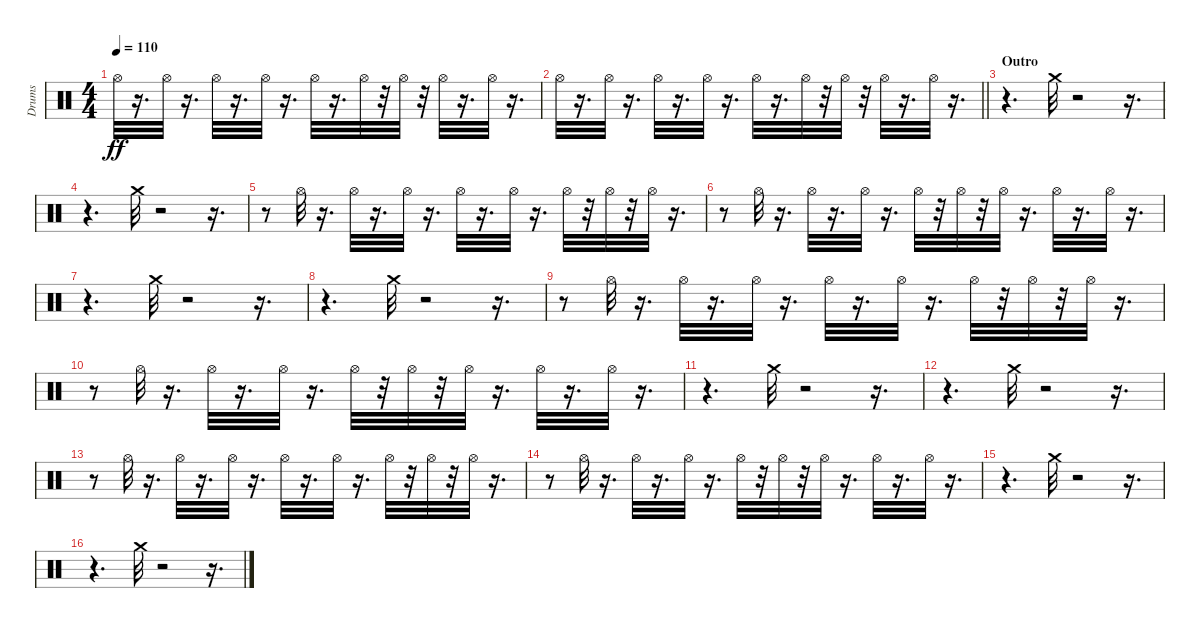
\track ("Drums" "Drums") {instrument percussion}
\staff {score}
\articulation defaults
\ts (4 4)
\tempo 110
\clef neutral
\ks c "Hi-Hat (open)".32{dy ff}
r.16{d} "Hi-Hat (open)".32 r.16{d} "Hi-Hat (open)".32 r.16{d} "Hi-Hat (open)".32 r.16{d} "Hi-Hat (open)".32 r.16{d} "Hi-Hat (open)".32 r.32 "Hi-Hat (open)".32 r.32 "Hi-Hat (open)".32 r.16{d} "Hi-Hat (open)".32 r.16{d} |
\barLineRight lightlight "Hi-Hat (open)".32
r.16{d} "Hi-Hat (open)".32 r.16{d} "Hi-Hat (open)".32 r.16{d} "Hi-Hat (open)".32 r.16{d} "Hi-Hat (open)".32 r.16{d} "Hi-Hat (open)".32 r.32 "Hi-Hat (open)".32 r.32 "Hi-Hat (open)".32 r.16{d} "Hi-Hat (open)".32 r.16{d} |
\section ("" "Outro")
r.4{d} "Crash medium (hit)".32 r.2 r.16{d} |
r.4{d} "Crash medium (hit)".32 r.2 r.16{d} |
r.8 "Hi-Hat (open)".32 r.16{d} "Hi-Hat (open)".32 r.16{d} "Hi-Hat (open)".32 r.16{d} "Hi-Hat (open)".32 r.16{d} "Hi-Hat (open)".32 r.16{d} "Hi-Hat (open)".32 r.32 "Hi-Hat (open)".32 r.32 "Hi-Hat (open)".32 r.16{d} |
r.8 "Hi-Hat (open)".32 r.16{d} "Hi-Hat (open)".32 r.16{d} "Hi-Hat (open)".32 r.16{d} "Hi-Hat (open)".32 r.32 "Hi-Hat (open)".32 r.32 "Hi-Hat (open)".32 r.16{d} "Hi-Hat (open)".32 r.16{d} "Hi-Hat (open)".32 r.16{d} |
r.4{d} "Crash medium (hit)".32 r.2 r.16{d} |
r.4{d} "Crash medium (hit)".32 r.2 r.16{d} |
r.8 "Hi-Hat (open)".32 r.16{d} "Hi-Hat (open)".32 r.16{d} "Hi-Hat (open)".32 r.16{d} "Hi-Hat (open)".32 r.16{d} "Hi-Hat (open)".32 r.16{d} "Hi-Hat (open)".32 r.32 "Hi-Hat (open)".32 r.32 "Hi-Hat (open)".32 r.16{d} |
r.8 "Hi-Hat (open)".32 r.16{d} "Hi-Hat (open)".32 r.16{d} "Hi-Hat (open)".32 r.16{d} "Hi-Hat (open)".32 r.32 "Hi-Hat (open)".32 r.32 "Hi-Hat (open)".32 r.16{d} "Hi-Hat (open)".32 r.16{d} "Hi-Hat (open)".32 r.16{d} |
r.4{d} "Crash medium (hit)".32 r.2 r.16{d} |
r.4{d} "Crash medium (hit)".32 r.2 r.16{d} |
r.8 "Hi-Hat (open)".32 r.16{d} "Hi-Hat (open)".32 r.16{d} "Hi-Hat (open)".32 r.16{d} "Hi-Hat (open)".32 r.16{d} "Hi-Hat (open)".32 r.16{d} "Hi-Hat (open)".32 r.32 "Hi-Hat (open)".32 r.32 "Hi-Hat (open)".32 r.16{d} |
r.8 "Hi-Hat (open)".32 r.16{d} "Hi-Hat (open)".32 r.16{d} "Hi-Hat (open)".32 r.16{d} "Hi-Hat (open)".32 r.32 "Hi-Hat (open)".32 r.32 "Hi-Hat (open)".32 r.16{d} "Hi-Hat (open)".32 r.16{d} "Hi-Hat (open)".32 r.16{d} |
r.4{d} "Crash medium (hit)".32 r.2 r.16{d} |
r.4{d} "Crash medium (hit)".32 r.2 r.16{d}
